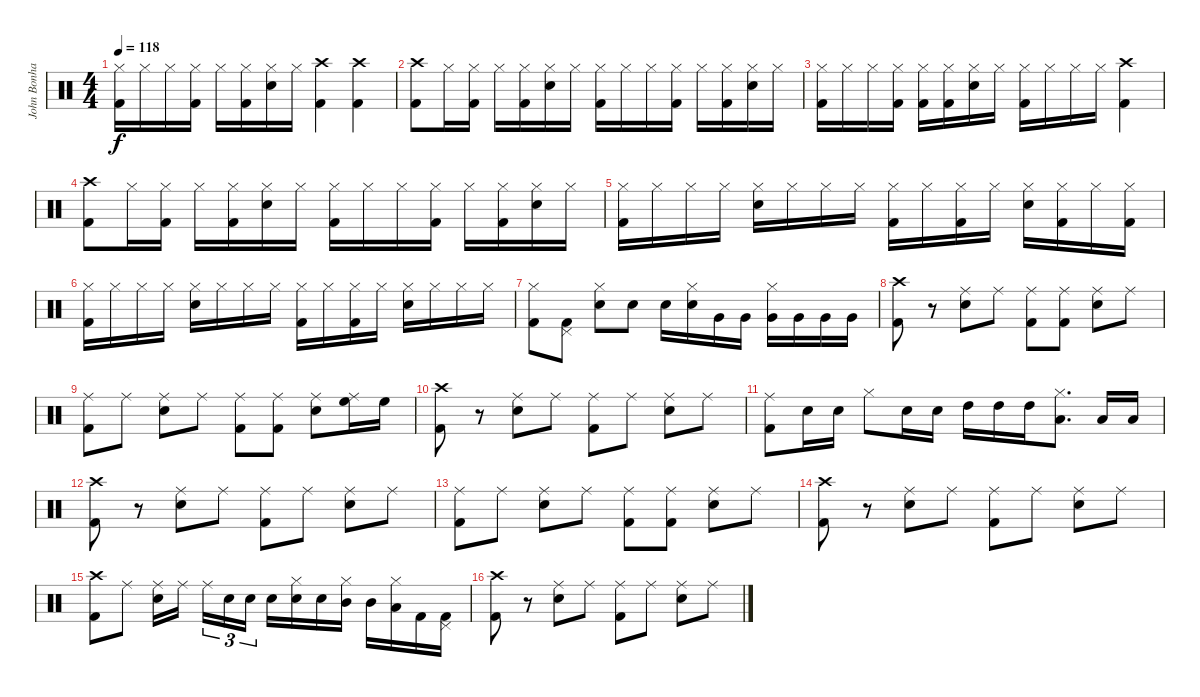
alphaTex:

\track ("John Bonham (Bateria)" "John Bonha") {instrument percussion}
\staff {score}
\articulation defaults
\ts (4 4)
\tempo 118
\clef neutral
\ks c
("Hi-Hat (closed)" "Kick (hit) 2").16{dy f} "Hi-Hat (closed)".16 "Hi-Hat (closed)".16 ("Hi-Hat (closed)" "Kick (hit) 2").16 "Hi-Hat (closed)".16 ("Hi-Hat (closed)" "Kick (hit) 2").16 ("Hi-Hat (closed)" "Snare (hit) 2").16 "Hi-Hat (closed)".16 ("Kick (hit) 2" "Crash high (hit)").4 ("Crash high (hit)" "Kick (hit) 2").4 |
("Crash high (hit)" "Kick (hit) 2").8 "Hi-Hat (closed)".16 ("Kick (hit) 2" "Hi-Hat (closed)").16 "Hi-Hat (closed)".16 ("Kick (hit) 2" "Hi-Hat (closed)").16 ("Snare (hit) 2" "Hi-Hat (closed)").16 "Hi-Hat (closed)".16 ("Kick (hit) 2" "Hi-Hat (closed)").16 "Hi-Hat (closed)".16 "Hi-Hat (closed)".16 ("Kick (hit) 2" "Hi-Hat (closed)").16 "Hi-Hat (closed)".16 ("Kick (hit) 2" "Hi-Hat (closed)").16 ("Snare (hit) 2" "Hi-Hat (closed)").16 "Hi-Hat (closed)".16 |
("Hi-Hat (closed)" "Kick (hit) 2").16 "Hi-Hat (closed)".16 "Hi-Hat (closed)".16 ("Kick (hit) 2" "Hi-Hat (closed)").16 ("Kick (hit) 2" "Hi-Hat (closed)").16 ("Kick (hit) 2" "Hi-Hat (closed)").16 ("Snare (hit) 2" "Hi-Hat (closed)").16 "Hi-Hat (closed)".16 ("Kick (hit) 2" "Hi-Hat (closed)").16 "Hi-Hat (closed)".16 "Hi-Hat (closed)".16 "Hi-Hat (closed)".16 ("Crash high (hit)" "Kick (hit) 2").4 |
("Crash high (hit)" "Kick (hit) 2").8 "Hi-Hat (closed)".16 ("Kick (hit) 2" "Hi-Hat (closed)").16 "Hi-Hat (closed)".16 ("Kick (hit) 2" "Hi-Hat (closed)").16 ("Snare (hit) 2" "Hi-Hat (closed)").16 "Hi-Hat (closed)".16 ("Kick (hit) 2" "Hi-Hat (closed)").16 "Hi-Hat (closed)".16 "Hi-Hat (closed)".16 ("Kick (hit) 2" "Hi-Hat (closed)").16 "Hi-Hat (closed)".16 ("Kick (hit) 2" "Hi-Hat (closed)").16 ("Snare (hit) 2" "Hi-Hat (closed)").16 "Hi-Hat (closed)".16 |
("Kick (hit) 2" "Hi-Hat (closed)").16 "Hi-Hat (closed)".16 "Hi-Hat (closed)".16 "Hi-Hat (closed)".16 ("Snare (hit) 2" "Hi-Hat (closed)").16 "Hi-Hat (closed)".16 "Hi-Hat (closed)".16 "Hi-Hat (closed)".16 ("Kick (hit) 2" "Hi-Hat (closed)").16 "Hi-Hat (closed)".16 ("Kick (hit) 2" "Hi-Hat (closed)").16 "Hi-Hat (closed)".16 ("Snare (hit) 2" "Hi-Hat (closed)").16 ("Kick (hit) 2" "Hi-Hat (closed)").16 "Hi-Hat (closed)".16 ("Kick (hit) 2" "Hi-Hat (closed)").16 |
("Kick (hit) 2" "Hi-Hat (closed)").16 "Hi-Hat (closed)".16 "Hi-Hat (closed)".16 "Hi-Hat (closed)".16 ("Snare (hit) 2" "Hi-Hat (closed)").16 "Hi-Hat (closed)".16 "Hi-Hat (closed)".16 "Hi-Hat (closed)".16 ("Kick (hit) 2" "Hi-Hat (closed)").16 "Hi-Hat (closed)".16 ("Kick (hit) 2" "Hi-Hat (closed)").16 "Hi-Hat (closed)".16 ("Snare (hit) 2" "Hi-Hat (closed)").16 "Hi-Hat (closed)".16 "Hi-Hat (closed)".16 "Hi-Hat (closed)".16 |
("Hi-Hat (closed)" "Kick (hit) 2").8 ("Pedal Hi-Hat (hit)" "Kick (hit) 2").8 ("Snare (hit) 2" "Hi-Hat (closed)").8 "Snare (hit) 2".8 "Snare (hit) 2".16 ("Snare (hit) 2" "Hi-Hat (closed)").16 "Very Low Tom (hit)".16 "Very Low Tom (hit)".16 ("Hi-Hat (closed)" "Very Low Tom (hit)").16 "Very Low Tom (hit)".16 "Very Low Tom (hit)".16 "Very Low Tom (hit)".16 |
("Crash high (hit)" "Kick (hit) 2").8 r.8 ("Snare (hit) 2" "Ride (middle)").8 "Ride (middle)".8 ("Ride (middle)" "Kick (hit) 2").8 ("Ride (middle)" "Kick (hit) 2").8 ("Ride (middle)" "Snare (hit) 2").8 "Ride (middle)".8 |
("Ride (middle)" "Kick (hit) 2").8 "Ride (middle)".8 ("Snare (hit) 2" "Ride (middle)").8 "Ride (middle)".8 ("Kick (hit) 2" "Ride (middle)").8 ("Kick (hit) 2" "Ride (middle)").8 ("Snare (hit) 2" "Ride (middle)").8 ("High Floor Tom (hit)" "Ride (middle)").16 "High Floor Tom (hit)".16 |
("Crash high (hit)" "Kick (hit) 2").8 r.8 ("Snare (hit) 2" "Ride (middle)").8 "Ride (middle)".8 ("Ride (middle)" "Kick (hit) 2").8 "Ride (middle)".8 ("Ride (middle)" "Snare (hit) 2").8 "Ride (middle)".8 |
("Ride (middle)" "Kick (hit) 2").8 "Snare (hit) 2".16 "Snare (hit) 2".16 "Hi-Hat (closed)".8 "Snare (hit) 2".16 "Snare (hit) 2".16 "High Tom (hit)".16 "High Tom (hit)".16 "High Tom (hit)".16 ("Low Floor Tom (hit)" "Hi-Hat (closed)").8{d} "Low Floor Tom (hit)".16 "Low Floor Tom (hit)".16 |
("Crash high (hit)" "Kick (hit) 2").8 r.8 ("Snare (hit) 2" "Ride (middle)").8 "Ride (middle)".8 ("Ride (middle)" "Kick (hit) 2").8 "Ride (middle)".8 ("Ride (middle)" "Snare (hit) 2").8 "Ride (middle)".8 |
("Ride (middle)" "Kick (hit) 2").8 "Ride (middle)".8 ("Snare (hit) 2" "Ride (middle)").8 "Ride (middle)".8 ("Ride (middle)" "Kick (hit) 2").8 ("Ride (middle)" "Kick (hit) 2").8 ("Ride (middle)" "Snare (hit) 2").8 "Ride (middle)".8 |
("Crash high (hit)" "Kick (hit) 2").8 r.8 ("Snare (hit) 2" "Ride (middle)").8 "Ride (middle)".8 ("Ride (middle)" "Kick (hit) 2").8 "Ride (middle)".8 ("Ride (middle)" "Snare (hit) 2").8 "Ride (middle)".8 |
("Crash high (hit)" "Kick (hit) 2").8 "Ride (middle)".8 ("Snare (hit) 2" "Ride (middle)").16 "Ride (middle)".16{beam splitsecondary} "Ride (middle)".16{tu (3 2)} "Snare (hit) 2".16{tu (3 2)} "Snare (hit) 2".16{tu (3 2)} "Snare (hit) 2".16 ("Snare (hit) 2" "Hi-Hat (closed)").16 "Snare (hit) 2".16 ("Mid Tom (hit)" "Hi-Hat (closed)").16 "Mid Tom (hit)".16 ("Low Floor Tom (hit)" "Hi-Hat (closed)").16 "Kick (hit) 2".16 ("Pedal Hi-Hat (hit)" "Kick (hit) 2").16 |
("Crash high (hit)" "Kick (hit) 2").8 r.8 ("Snare (hit) 2" "Ride (middle)").8 "Ride (middle)".8 ("Ride (middle)" "Kick (hit) 2").8 "Ride (middle)".8 ("Ride (middle)" "Snare (hit) 2").8 "Ride (middle)".8
